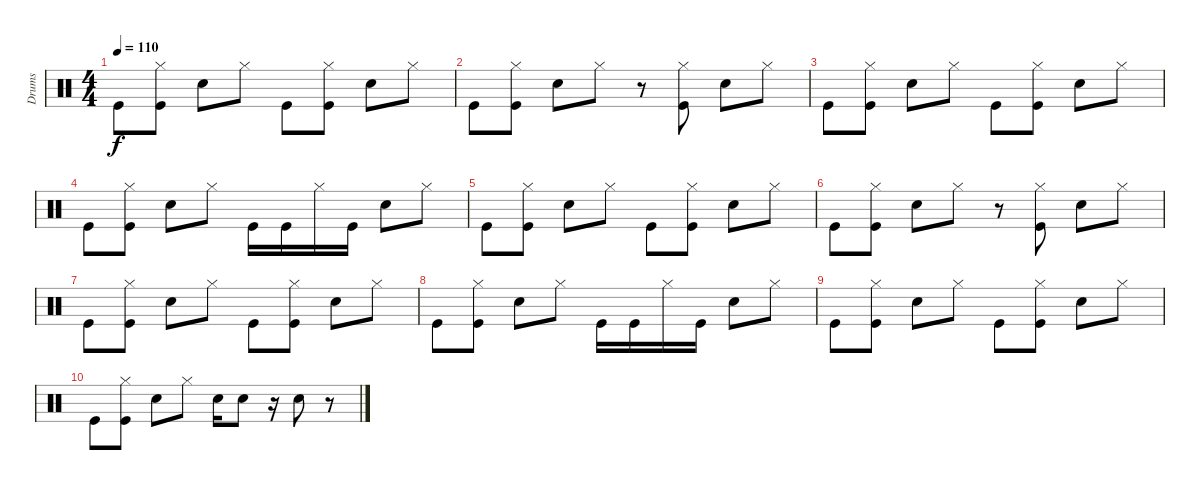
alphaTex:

\track ("Drums" "Drums") {instrument percussion}
\staff {score}
\articulation defaults
\ts (4 4)
\tempo 110
\clef neutral
\ks c "Kick (hit)".8{dy f}
("Hi-Hat (closed)" "Kick (hit)").8 "Electric Snare (hit)".8 "Hi-Hat (closed)".8 "Kick (hit)".8 ("Hi-Hat (closed)" "Kick (hit)").8 "Electric Snare (hit)".8 "Hi-Hat (closed)".8 |
"Kick (hit)".8 ("Hi-Hat (closed)" "Kick (hit)").8 "Electric Snare (hit)".8 "Hi-Hat (closed)".8 r.8 ("Hi-Hat (closed)" "Kick (hit)").8 "Electric Snare (hit)".8 "Hi-Hat (closed)".8 |
"Kick (hit)".8 ("Hi-Hat (closed)" "Kick (hit)").8 "Electric Snare (hit)".8 "Hi-Hat (closed)".8 "Kick (hit)".8 ("Hi-Hat (closed)" "Kick (hit)").8 "Electric Snare (hit)".8 "Hi-Hat (closed)".8 |
"Kick (hit)".8 ("Hi-Hat (closed)" "Kick (hit)").8 "Electric Snare (hit)".8 "Hi-Hat (closed)".8 "Kick (hit)".16 "Kick (hit)".16 "Hi-Hat (closed)".16 "Kick (hit)".16 "Electric Snare (hit)".8 "Hi-Hat (closed)".8 |
"Kick (hit)".8 ("Hi-Hat (closed)" "Kick (hit)").8 "Electric Snare (hit)".8 "Hi-Hat (closed)".8 "Kick (hit)".8 ("Hi-Hat (closed)" "Kick (hit)").8 "Electric Snare (hit)".8 "Hi-Hat (closed)".8 |
"Kick (hit)".8 ("Hi-Hat (closed)" "Kick (hit)").8 "Electric Snare (hit)".8 "Hi-Hat (closed)".8 r.8 ("Hi-Hat (closed)" "Kick (hit)").8 "Electric Snare (hit)".8 "Hi-Hat (closed)".8 |
"Kick (hit)".8 ("Hi-Hat (closed)" "Kick (hit)").8 "Electric Snare (hit)".8 "Hi-Hat (closed)".8 "Kick (hit)".8 ("Hi-Hat (closed)" "Kick (hit)").8 "Electric Snare (hit)".8 "Hi-Hat (closed)".8 |
"Kick (hit)".8 ("Hi-Hat (closed)" "Kick (hit)").8 "Electric Snare (hit)".8 "Hi-Hat (closed)".8 "Kick (hit)".16 "Kick (hit)".16 "Hi-Hat (closed)".16 "Kick (hit)".16 "Electric Snare (hit)".8 "Hi-Hat (closed)".8 |
"Kick (hit)".8 ("Hi-Hat (closed)" "Kick (hit)").8 "Electric Snare (hit)".8 "Hi-Hat (closed)".8 "Kick (hit)".8 ("Hi-Hat (closed)" "Kick (hit)").8 "Electric Snare (hit)".8 "Hi-Hat (closed)".8 |
"Kick (hit)".8 ("Hi-Hat (closed)" "Kick (hit)").8 "Electric Snare (hit)".8 "Hi-Hat (closed)".8 "Electric Snare (hit)".16 "Electric Snare (hit)".8 r.16 "Electric Snare (hit)".8 r.8
